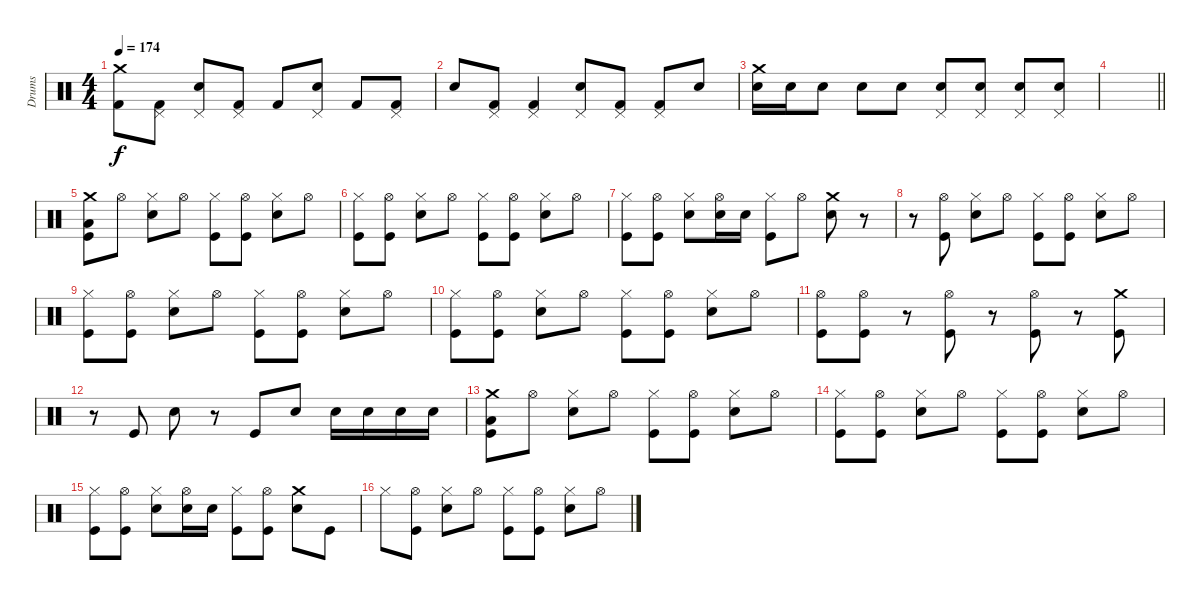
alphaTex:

\track ("Drums" "Drums") {instrument percussion}
\staff {score}
\articulation defaults
\ts (4 4)
\tempo 174
\clef neutral
\ks c
("Crash medium (hit)" "Kick (hit) 2").8{dy f} ("Pedal Hi-Hat (hit)" "Kick (hit) 2").8 ("Snare (hit) 2" "Pedal Hi-Hat (hit)").8 ("Pedal Hi-Hat (hit)" "Kick (hit) 2").8 "Kick (hit) 2".8 ("Snare (hit) 2" "Pedal Hi-Hat (hit)").8 "Kick (hit) 2".8 ("Pedal Hi-Hat (hit)" "Kick (hit) 2").8 |
"Snare (hit) 2".8 ("Pedal Hi-Hat (hit)" "Kick (hit) 2").8 ("Pedal Hi-Hat (hit)" "Kick (hit) 2").4 ("Snare (hit) 2" "Pedal Hi-Hat (hit)").8 ("Pedal Hi-Hat (hit)" "Kick (hit) 2").8 ("Pedal Hi-Hat (hit)" "Kick (hit) 2").8 "Snare (hit) 2".8 |
("Snare (hit) 2" "Crash medium (hit)").16 "Snare (hit) 2".16 "Snare (hit) 2".8 "Snare (hit) 2".8 "Snare (hit) 2".8 ("Snare (hit) 2" "Pedal Hi-Hat (hit)").8 ("Snare (hit) 2" "Pedal Hi-Hat (hit)").8 ("Snare (hit) 2" "Pedal Hi-Hat (hit)").8 ("Snare (hit) 2" "Pedal Hi-Hat (hit)").8 |
\barLineRight lightlight
|
("Crash medium (hit)" "Low Floor Tom (hit)" "Kick (hit)").8 "Hi-Hat (open)".8 ("Hi-Hat (closed)" "Electric Snare (hit)").8 "Hi-Hat (open)".8 ("Hi-Hat (closed)" "Kick (hit)").8 ("Hi-Hat (open)" "Kick (hit)").8 ("Hi-Hat (closed)" "Electric Snare (hit)").8 "Hi-Hat (open)".8 |
("Hi-Hat (closed)" "Kick (hit)").8 ("Hi-Hat (open)" "Kick (hit)").8 ("Hi-Hat (closed)" "Electric Snare (hit)").8 "Hi-Hat (open)".8 ("Hi-Hat (closed)" "Kick (hit)").8 ("Hi-Hat (open)" "Kick (hit)").8 ("Hi-Hat (closed)" "Electric Snare (hit)").8 "Hi-Hat (open)".8 |
("Hi-Hat (closed)" "Kick (hit)").8 ("Hi-Hat (open)" "Kick (hit)").8 ("Hi-Hat (closed)" "Electric Snare (hit)").8 ("Hi-Hat (open)" "Electric Snare (hit)").16 "Electric Snare (hit)".16 ("Hi-Hat (closed)" "Kick (hit)").8 "Hi-Hat (open)".8 ("Crash medium (hit)" "Electric Snare (hit)").8 r.8 |
r.8 ("Hi-Hat (open)" "Kick (hit)").8 ("Hi-Hat (closed)" "Electric Snare (hit)").8 "Hi-Hat (open)".8 ("Hi-Hat (closed)" "Kick (hit)").8 ("Hi-Hat (open)" "Kick (hit)").8 ("Hi-Hat (closed)" "Electric Snare (hit)").8 "Hi-Hat (open)".8 |
("Hi-Hat (closed)" "Kick (hit)").8 ("Hi-Hat (open)" "Kick (hit)").8 ("Hi-Hat (closed)" "Electric Snare (hit)").8 "Hi-Hat (open)".8 ("Hi-Hat (closed)" "Kick (hit)").8 ("Hi-Hat (open)" "Kick (hit)").8 ("Hi-Hat (closed)" "Electric Snare (hit)").8 "Hi-Hat (open)".8 |
("Hi-Hat (closed)" "Kick (hit)").8 ("Hi-Hat (open)" "Kick (hit)").8 ("Hi-Hat (closed)" "Electric Snare (hit)").8 "Hi-Hat (open)".8 ("Hi-Hat (closed)" "Kick (hit)").8 ("Hi-Hat (open)" "Kick (hit)").8 ("Hi-Hat (closed)" "Electric Snare (hit)").8 "Hi-Hat (open)".8 |
("Hi-Hat (open)" "Kick (hit)").8 ("Hi-Hat (open)" "Kick (hit)").8 r.8 ("Hi-Hat (open)" "Kick (hit)").8 r.8 ("Hi-Hat (open)" "Kick (hit)").8 r.8 ("Crash medium (hit)" "Kick (hit)").8 |
r.8 "Kick (hit)".8 "Electric Snare (hit)".8 r.8 "Kick (hit)".8 "Electric Snare (hit)".8 "Electric Snare (hit)".16 "Electric Snare (hit)".16 "Electric Snare (hit)".16 "Electric Snare (hit)".16 |
("Crash medium (hit)" "Low Floor Tom (hit)" "Kick (hit)").8 "Hi-Hat (open)".8 ("Hi-Hat (closed)" "Electric Snare (hit)").8 "Hi-Hat (open)".8 ("Hi-Hat (closed)" "Kick (hit)").8 ("Hi-Hat (open)" "Kick (hit)").8 ("Hi-Hat (closed)" "Electric Snare (hit)").8 "Hi-Hat (open)".8 |
("Hi-Hat (closed)" "Kick (hit)").8 ("Hi-Hat (open)" "Kick (hit)").8 ("Hi-Hat (closed)" "Electric Snare (hit)").8 "Hi-Hat (open)".8 ("Hi-Hat (closed)" "Kick (hit)").8 ("Hi-Hat (open)" "Kick (hit)").8 ("Hi-Hat (closed)" "Electric Snare (hit)").8 "Hi-Hat (open)".8 |
("Hi-Hat (closed)" "Kick (hit)").8 ("Hi-Hat (open)" "Kick (hit)").8 ("Hi-Hat (closed)" "Electric Snare (hit)").8 ("Hi-Hat (open)" "Electric Snare (hit)").16 "Electric Snare (hit)".16 ("Hi-Hat (closed)" "Kick (hit)").8 ("Hi-Hat (open)" "Kick (hit)").8 ("Crash medium (hit)" "Electric Snare (hit)").8 "Kick (hit)".8 |
"Hi-Hat (closed)".8 ("Hi-Hat (open)" "Kick (hit)").8 ("Hi-Hat (closed)" "Electric Snare (hit)").8 "Hi-Hat (open)".8 ("Hi-Hat (closed)" "Kick (hit)").8 ("Hi-Hat (open)" "Kick (hit)").8 ("Hi-Hat (closed)" "Electric Snare (hit)").8 "Hi-Hat (open)".8
